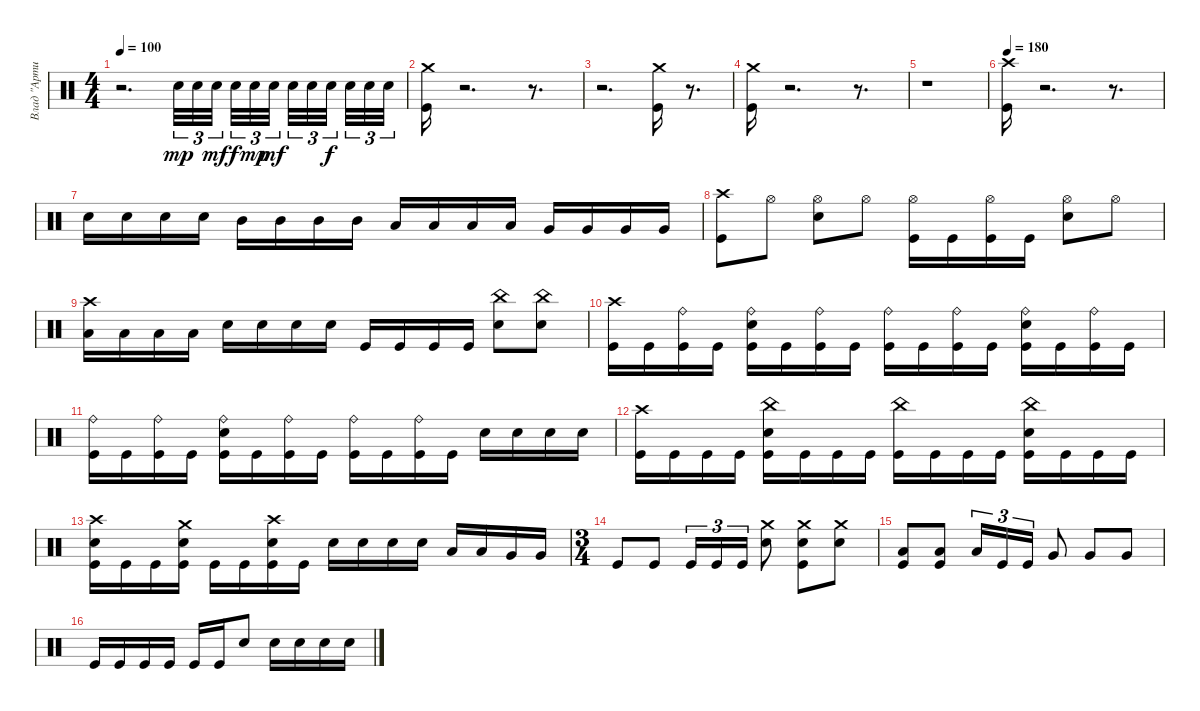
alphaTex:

\track ("Влад \"Артист\"" "Влад \"Арти") {instrument percussion}
\staff {score}
\articulation defaults
\ts (4 4)
\tempo 100
\clef neutral
\ks c
r.2{d dy f} "Snare (hit) 2".32{tu (3 2) dy mp} "Snare (hit) 2".32{tu (3 2)} "Snare (hit) 2".32{tu (3 2) dy mf beam splitsecondary} "Snare (hit) 2".32{tu (3 2) dy f} "Snare (hit) 2".32{tu (3 2) dy mp} "Snare (hit) 2".32{tu (3 2) dy mf beam splitsecondary} "Snare (hit) 2".32{tu (3 2)} "Snare (hit) 2".32{tu (3 2)} "Snare (hit) 2".32{tu (3 2) dy f beam splitsecondary} "Snare (hit) 2".32{tu (3 2)} "Snare (hit) 2".32{tu (3 2)} "Snare (hit) 2".32{tu (3 2)} |
("Crash medium (hit)" "Kick (hit)").16 r.2{d} r.8{d} |
r.2{d} ("Kick (hit)" "Crash medium (hit)").16 r.8{d} |
("Kick (hit)" "Crash medium (hit)").16 r.2{d} r.8{d} |
r.1 |
\tempo 180
("Kick (hit)" "Crash high (hit)").16 r.2{d} r.8{d} |
"Snare (hit) 2".16 "Snare (hit) 2".16 "Snare (hit) 2".16 "Snare (hit) 2".16 "Mid Tom (hit)".16 "Mid Tom (hit)".16 "Mid Tom (hit)".16 "Mid Tom (hit)".16 "Low Tom (hit)".16 "Low Tom (hit)".16 "Low Tom (hit)".16 "Low Tom (hit)".16 "Very Low Tom (hit)".16 "Very Low Tom (hit)".16 "Very Low Tom (hit)".16 "Very Low Tom (hit)".16 |
("Kick (hit)" "Crash high (hit)").8 "Hi-Hat (open)".8 ("Hi-Hat (open)" "Snare (hit) 2").8 "Hi-Hat (open)".8 ("Hi-Hat (open)" "Kick (hit)").16 "Kick (hit)".16 ("Kick (hit)" "Hi-Hat (open)").16 "Kick (hit)".16 ("Snare (hit) 2" "Hi-Hat (open)").8 "Hi-Hat (open)".8 |
("Crash high (hit)" "Low Tom (hit)").16 "Low Tom (hit)".16 "Low Tom (hit)".16 "Low Tom (hit)".16 "Snare (hit) 2".16 "Snare (hit) 2".16 "Snare (hit) 2".16 "Snare (hit) 2".16 "Kick (hit)".16 "Kick (hit)".16 "Kick (hit)".16 "Kick (hit)".16 ("China (hit)" "Snare (hit) 2").8 ("China (hit)" "Snare (hit) 2").8 |
("Crash high (hit)" "Kick (hit)").16 "Kick (hit)".16 ("Kick (hit)" "Ride (bell)").16 "Kick (hit)".16 ("Snare (hit) 2" "Kick (hit)" "Ride (bell)").16 "Kick (hit)".16 ("Kick (hit)" "Ride (bell)").16 "Kick (hit)".16 ("Kick (hit)" "Ride (bell)").16 "Kick (hit)".16 ("Kick (hit)" "Ride (bell)").16 "Kick (hit)".16 ("Snare (hit) 2" "Kick (hit)" "Ride (bell)").16 "Kick (hit)".16 ("Kick (hit)" "Ride (bell)").16 "Kick (hit)".16 |
("Ride (bell)" "Kick (hit)").16 "Kick (hit)".16 ("Ride (bell)" "Kick (hit)").16 "Kick (hit)".16 ("Snare (hit) 2" "Kick (hit)" "Ride (bell)").16 "Kick (hit)".16 ("Kick (hit)" "Ride (bell)").16 "Kick (hit)".16 ("Kick (hit)" "Ride (bell)").16 "Kick (hit)".16 ("Kick (hit)" "Ride (bell)").16 "Kick (hit)".16 "Snare (hit) 2".16 "Snare (hit) 2".16 "Snare (hit) 2".16 "Snare (hit) 2".16 |
("Kick (hit)" "Crash high (hit)").16 "Kick (hit)".16 "Kick (hit)".16 "Kick (hit)".16 ("Snare (hit) 2" "Kick (hit)" "China (hit)").16 "Kick (hit)".16 "Kick (hit)".16 "Kick (hit)".16 ("Kick (hit)" "China (hit)").16 "Kick (hit)".16 "Kick (hit)".16 "Kick (hit)".16 ("Kick (hit)" "Snare (hit) 2" "China (hit)").16 "Kick (hit)".16 "Kick (hit)".16 "Kick (hit)".16 |
("Snare (hit) 2" "Crash high (hit)" "Kick (hit)").16 "Kick (hit)".16 "Kick (hit)".16 ("Kick (hit)" "Snare (hit) 2" "Crash medium (hit)").16 "Kick (hit)".16 "Kick (hit)".16 ("Kick (hit)" "Snare (hit) 2" "Crash high (hit)").16 "Kick (hit)".16 "Snare (hit) 2".16 "Snare (hit) 2".16 "Snare (hit) 2".16 "Snare (hit) 2".16 "Low Tom (hit)".16 "Low Tom (hit)".16 "Very Low Tom (hit)".16 "Very Low Tom (hit)".16 |
\ts (3 4)
"Kick (hit)".8 "Kick (hit)".8 "Kick (hit)".16{tu (3 2)} "Kick (hit)".16{tu (3 2)} "Kick (hit)".16{tu (3 2)} ("Snare (hit) 2" "Crash medium (hit)").8 ("Crash medium (hit)" "Snare (hit) 2" "Kick (hit)").8 ("Crash medium (hit)" "Snare (hit) 2").8 |
("Kick (hit)" "Low Tom (hit)").8 ("Low Tom (hit)" "Kick (hit)").8 "Low Tom (hit)".16{tu (3 2)} "Kick (hit)".16{tu (3 2)} "Kick (hit)".16{tu (3 2)} "Very Low Tom (hit)".8 "Very Low Tom (hit)".8 "Very Low Tom (hit)".8 |
"Kick (hit)".16 "Kick (hit)".16 "Kick (hit)".16 "Kick (hit)".16 "Kick (hit)".16 "Kick (hit)".16 "Snare (hit) 2".8 "Snare (hit) 2".16 "Snare (hit) 2".16 "Snare (hit) 2".16 "Snare (hit) 2".16
